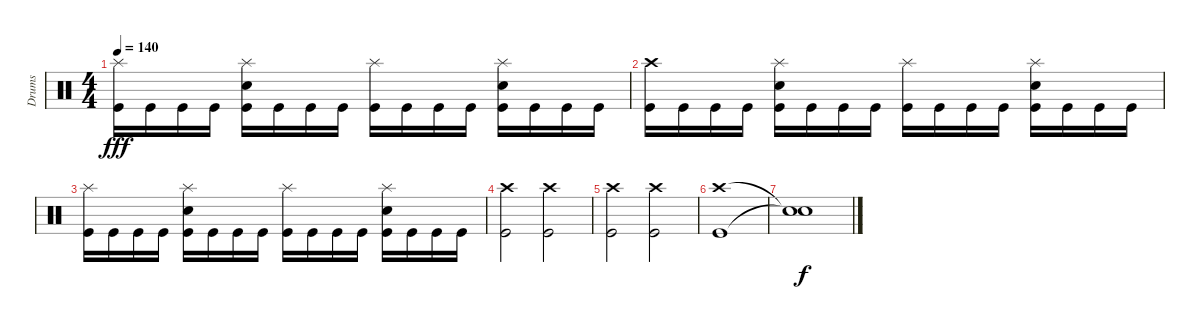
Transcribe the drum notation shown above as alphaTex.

\track ("Drums" "Drums") {instrument percussion}
\staff {score}
\articulation defaults
\ts (4 4)
\tempo 140
\clef neutral
\ks c
("Splash (hit)" "Kick (hit)").16{dy fff} "Kick (hit)".16 "Kick (hit)".16 "Kick (hit)".16 ("Splash (hit)" "Electric Snare (hit)" "Kick (hit)").16 "Kick (hit)".16 "Kick (hit)".16 "Kick (hit)".16 ("Splash (hit)" "Kick (hit)").16 "Kick (hit)".16 "Kick (hit)".16 "Kick (hit)".16 ("Splash (hit)" "Electric Snare (hit)" "Kick (hit)").16 "Kick (hit)".16 "Kick (hit)".16 "Kick (hit)".16 |
("Crash high (hit)" "Kick (hit)").16 "Kick (hit)".16 "Kick (hit)".16 "Kick (hit)".16 ("Splash (hit)" "Electric Snare (hit)" "Kick (hit)").16 "Kick (hit)".16 "Kick (hit)".16 "Kick (hit)".16 ("Splash (hit)" "Kick (hit)").16 "Kick (hit)".16 "Kick (hit)".16 "Kick (hit)".16 ("Splash (hit)" "Electric Snare (hit)" "Kick (hit)").16 "Kick (hit)".16 "Kick (hit)".16 "Kick (hit)".16 |
("Splash (hit)" "Kick (hit)").16 "Kick (hit)".16 "Kick (hit)".16 "Kick (hit)".16 ("Splash (hit)" "Electric Snare (hit)" "Kick (hit)").16 "Kick (hit)".16 "Kick (hit)".16 "Kick (hit)".16 ("Splash (hit)" "Kick (hit)").16 "Kick (hit)".16 "Kick (hit)".16 "Kick (hit)".16 ("Splash (hit)" "Electric Snare (hit)" "Kick (hit)").16 "Kick (hit)".16 "Kick (hit)".16 "Kick (hit)".16 |
("Crash high (hit)" "Kick (hit)").2 ("Crash high (hit)" "Kick (hit)").2 |
("Crash high (hit)" "Kick (hit)").2 ("Crash high (hit)" "Kick (hit)").2 |
("Crash high (hit)" "Kick (hit)").1 |
("Snare (hit)"{t} "Snare (hit)"{t}).1{dy f}
